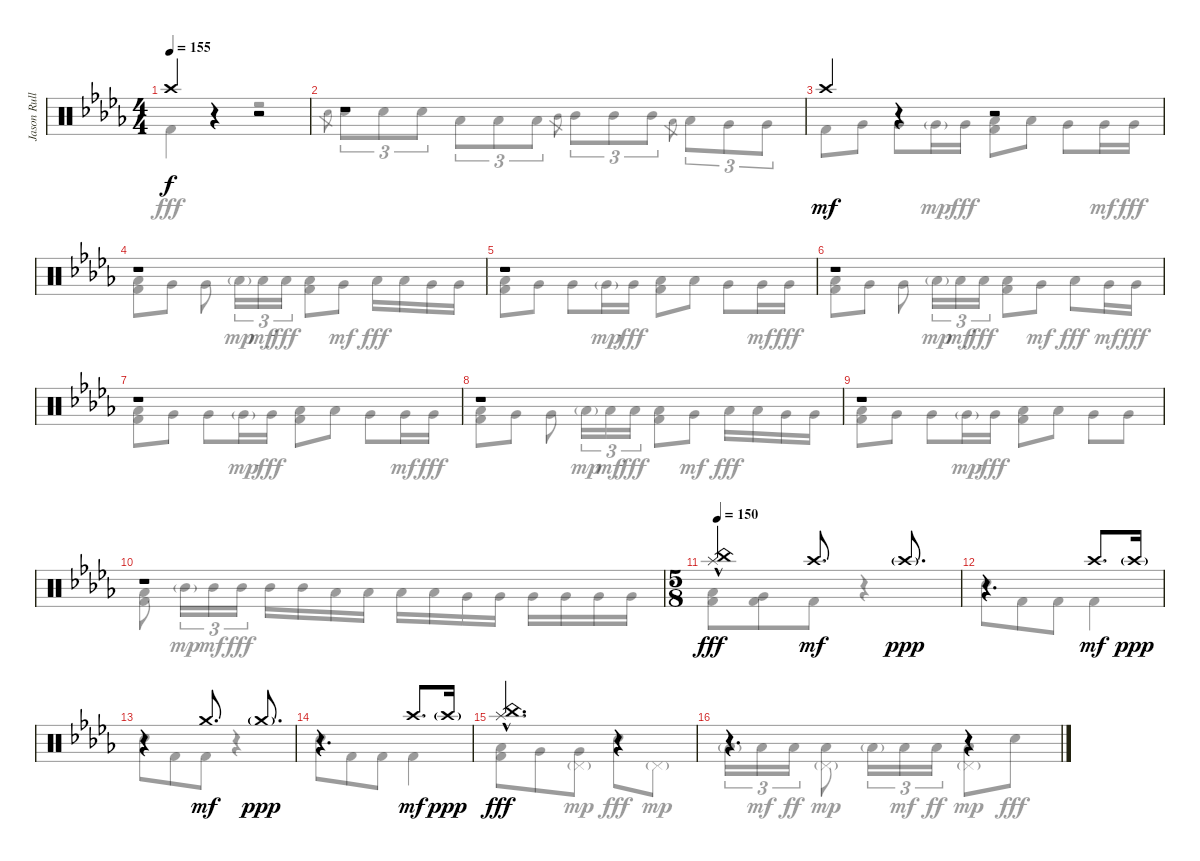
\track ("Jason Rullo Drums" "Jason Rull") {instrument percussion}
\staff {score}
\articulation defaults
\voice
\ts (4 4)
\tempo 155
\clef neutral
\ks bbminor "Crash high (hit)".4{dy f}
r.4 r.2 |
r.1 |
"Crash high (hit)".4{dy mf} r.4 r.2 |
r.1 |
r.1 |
r.1 |
r.1 |
r.1 |
r.1 |
r.1 |
\ts (5 8)
\tempo 150
("China (hit)"{hac} "Splash (hit)").4{dy fff} "Crash high (hit)".8{d dy mf} "Crash high (hit)"{g}.8{d dy ppp} |
r.4{d} "Crash high (hit)".8{d dy mf} "Crash high (hit)"{g}.16{dy ppp} |
r.4 "Crash medium (hit)".8{d dy mf} "Crash medium (hit)"{g}.8{d dy ppp} |
r.4{d} "Crash high (hit)".8{d dy mf} "Crash high (hit)"{g}.16{dy ppp} |
("China (hit)"{hac} "Splash (hit)").4{d dy fff} r.4 |
r.4{d} r.4
\voice
\clef neutral
\ottava regular
\simile none
\ks bbminor "Kick (hit) 2".4{dy fff}
r.4 r.2 |
"Electric Snare (hit)".8{gr} "Electric Snare (hit)".8{tu (3 2)} "Electric Snare (hit)".8{tu (3 2)} "Electric Snare (hit)".8{tu (3 2)} "Low Tom (hit)".8{tu (3 2)} "Low Tom (hit)".8{tu (3 2)} "Low Tom (hit)".8{tu (3 2)} "Mid Tom (hit)".8{gr} "Mid Tom (hit)".8{tu (3 2)} "Mid Tom (hit)".8{tu (3 2)} "Mid Tom (hit)".8{tu (3 2)} "Low Tom (hit)".8{gr} "Low Tom (hit)".8{tu (3 2)} "Very Low Tom (hit)".8{tu (3 2)} "Very Low Tom (hit)".8{tu (3 2)} |
"Kick (hit) 2".8 "Very Low Tom (hit)".8 "Very Low Tom (hit)".8 "Very Low Tom (hit)"{g}.16{dy mp} "Very Low Tom (hit)".16{dy fff} ("Low Tom (hit)" "Kick (hit) 2").8 "Low Tom (hit)".8 "Very Low Tom (hit)".8 "Very Low Tom (hit)".16{dy mf} "Very Low Tom (hit)".16{dy fff} |
("Low Tom (hit)" "Kick (hit) 2").8 "Very Low Tom (hit)".8 "Very Low Tom (hit)".8 "Low Tom (hit)"{g}.16{tu (3 2) dy mp} "Low Tom (hit)".16{tu (3 2) dy mf} "Low Tom (hit)".16{tu (3 2) dy fff} ("Low Tom (hit)" "Kick (hit) 2").8 "Very Low Tom (hit)".8{dy mf} "Low Tom (hit)".16{dy fff} "Low Tom (hit)".16 "Very Low Tom (hit)".16 "Very Low Tom (hit)".16 |
("Low Tom (hit)" "Kick (hit) 2").8 "Very Low Tom (hit)".8 "Very Low Tom (hit)".8 "Very Low Tom (hit)"{g}.16{dy mp} "Very Low Tom (hit)".16{dy fff} ("Low Tom (hit)" "Kick (hit) 2").8 "Low Tom (hit)".8 "Very Low Tom (hit)".8 "Very Low Tom (hit)".16{dy mf} "Very Low Tom (hit)".16{dy fff} |
("Low Tom (hit)" "Kick (hit) 2").8 "Very Low Tom (hit)".8 "Very Low Tom (hit)".8 "Low Tom (hit)"{g}.16{tu (3 2) dy mp} "Low Tom (hit)".16{tu (3 2) dy mf} "Low Tom (hit)".16{tu (3 2) dy fff} ("Low Tom (hit)" "Kick (hit) 2").8 "Very Low Tom (hit)".8{dy mf} "Low Tom (hit)".8{dy fff} "Very Low Tom (hit)".16{dy mf} "Very Low Tom (hit)".16{dy fff} |
("Low Tom (hit)" "Kick (hit) 2").8 "Very Low Tom (hit)".8 "Very Low Tom (hit)".8 "Very Low Tom (hit)"{g}.16{dy mp} "Very Low Tom (hit)".16{dy fff} ("Low Tom (hit)" "Kick (hit) 2").8 "Low Tom (hit)".8 "Very Low Tom (hit)".8 "Very Low Tom (hit)".16{dy mf} "Very Low Tom (hit)".16{dy fff} |
("Low Tom (hit)" "Kick (hit) 2").8 "Very Low Tom (hit)".8 "Very Low Tom (hit)".8 "Low Tom (hit)"{g}.16{tu (3 2) dy mp} "Low Tom (hit)".16{tu (3 2) dy mf} "Low Tom (hit)".16{tu (3 2) dy fff} ("Low Tom (hit)" "Kick (hit) 2").8 "Very Low Tom (hit)".8{dy mf} "Low Tom (hit)".16{dy fff} "Low Tom (hit)".16 "Very Low Tom (hit)".16 "Very Low Tom (hit)".16 |
("Low Tom (hit)" "Kick (hit) 2").8 "Very Low Tom (hit)".8 "Very Low Tom (hit)".8 "Very Low Tom (hit)"{g}.16{dy mp} "Very Low Tom (hit)".16{dy fff} ("Low Tom (hit)" "Kick (hit) 2").8 "Low Tom (hit)".8 "Very Low Tom (hit)".8 "Very Low Tom (hit)".8 |
("Low Tom (hit)" "Kick (hit) 2").8 "Mid Tom (hit)"{g}.16{tu (3 2) dy mp} "Mid Tom (hit)".16{tu (3 2) dy mf} "Mid Tom (hit)".16{tu (3 2) dy fff} "Mid Tom (hit)".16 "Mid Tom (hit)".16 "Low Tom (hit)".16 "Low Tom (hit)".16 "Low Tom (hit)".16 "Low Tom (hit)".16 "Very Low Tom (hit)".16 "Very Low Tom (hit)".16 "Very Low Tom (hit)".16 "Very Low Tom (hit)".16 "Very Low Tom (hit)".16 "Very Low Tom (hit)".16 |
("Low Tom (hit)" "Kick (hit) 2").8 ("Very Low Tom (hit)" "Kick (hit) 2").8 "Kick (hit) 2".8 r.4 |
"Electric Snare (hit)".8 "Kick (hit) 2".8 "Kick (hit) 2".8 "Kick (hit) 2".4 |
"Electric Snare (hit)".8 "Kick (hit) 2".8 "Kick (hit) 2".8 r.4 |
"Electric Snare (hit)".8 "Kick (hit) 2".8 "Kick (hit) 2".8 "Kick (hit) 2".4 |
("Low Tom (hit)" "Kick (hit) 2").8 "Very Low Tom (hit)".8 ("Very Low Tom (hit)" "Pedal Hi-Hat (hit)"{g}).8{dy mp} "Electric Snare (hit)".8{dy fff} "Pedal Hi-Hat (hit)"{g}.8{dy mp} |
"Low Tom (hit)"{g}.16{tu (3 2)} "Low Tom (hit)".16{tu (3 2) dy mf} "Low Tom (hit)".16{tu (3 2) dy ff} ("Low Tom (hit)" "Pedal Hi-Hat (hit)"{g}).8{dy mp} "Low Tom (hit)"{g}.16{tu (3 2)} "Low Tom (hit)".16{tu (3 2) dy mf} "Low Tom (hit)".16{tu (3 2) dy ff} ("Low Tom (hit)" "Pedal Hi-Hat (hit)"{g}).8{dy mp} "Electric Snare (hit)".8{dy fff}
